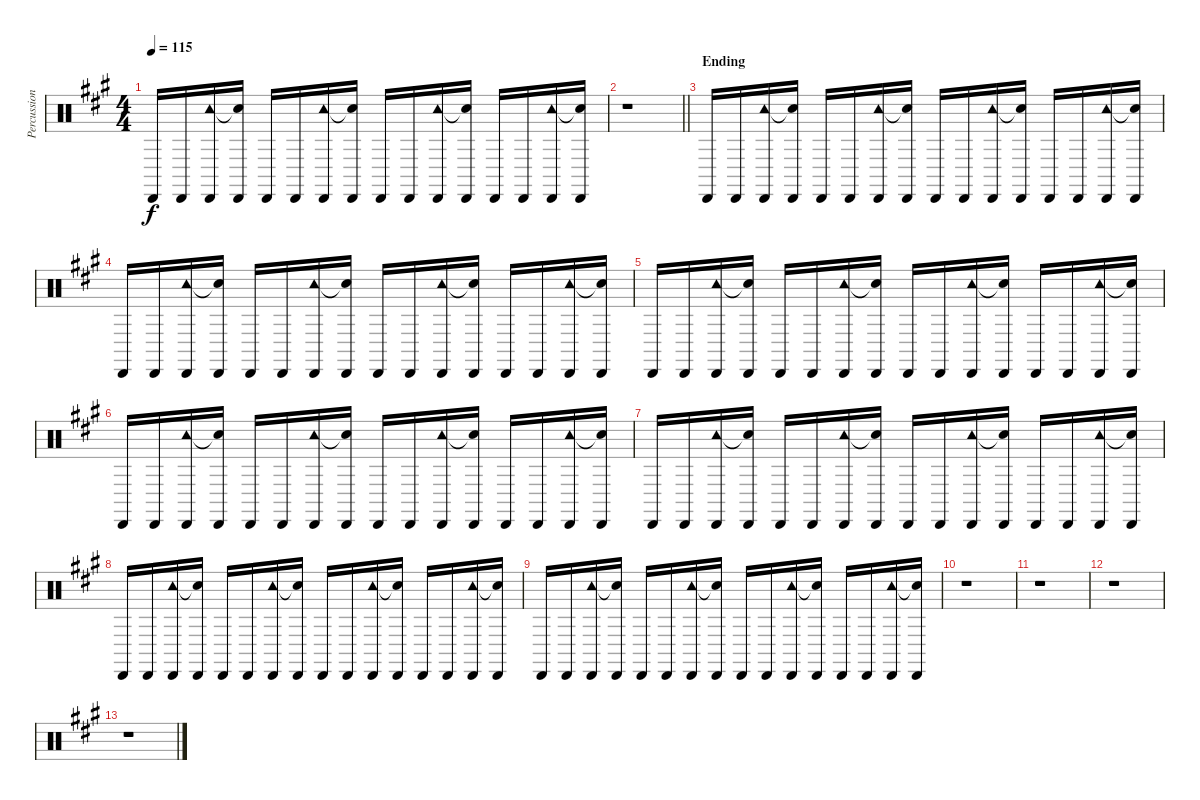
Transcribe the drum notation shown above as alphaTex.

\track ("Percussion" "Percussion") {instrument percussion}
\staff {score}
\articulation defaults
\ts (4 4)
\tempo 115
\clef neutral
\ks a "Cabasa (hit)".16{dy f} "Cabasa (hit)".16
("Cabasa (hit)" "Tambourine (hit)").16 ("Cabasa (hit)" "Snare (hit)"{t}).16 "Cabasa (hit)".16 "Cabasa (hit)".16 ("Cabasa (hit)" "Tambourine (hit)").16 ("Cabasa (hit)" "Snare (hit)"{t}).16 "Cabasa (hit)".16 "Cabasa (hit)".16 ("Cabasa (hit)" "Tambourine (hit)").16 ("Cabasa (hit)" "Snare (hit)"{t}).16 "Cabasa (hit)".16 "Cabasa (hit)".16 ("Cabasa (hit)" "Tambourine (hit)").16 ("Cabasa (hit)" "Snare (hit)"{t}).16 |
\barLineRight lightlight
r.1 |
\section ("" "Ending")
"Cabasa (hit)".16 "Cabasa (hit)".16 ("Cabasa (hit)" "Tambourine (hit)").16 ("Cabasa (hit)" "Snare (hit)"{t}).16 "Cabasa (hit)".16 "Cabasa (hit)".16 ("Cabasa (hit)" "Tambourine (hit)").16 ("Cabasa (hit)" "Snare (hit)"{t}).16 "Cabasa (hit)".16 "Cabasa (hit)".16 ("Cabasa (hit)" "Tambourine (hit)").16 ("Cabasa (hit)" "Snare (hit)"{t}).16 "Cabasa (hit)".16 "Cabasa (hit)".16 ("Cabasa (hit)" "Tambourine (hit)").16 ("Cabasa (hit)" "Snare (hit)"{t}).16 |
"Cabasa (hit)".16 "Cabasa (hit)".16 ("Cabasa (hit)" "Tambourine (hit)").16 ("Cabasa (hit)" "Snare (hit)"{t}).16 "Cabasa (hit)".16 "Cabasa (hit)".16 ("Cabasa (hit)" "Tambourine (hit)").16 ("Cabasa (hit)" "Snare (hit)"{t}).16 "Cabasa (hit)".16 "Cabasa (hit)".16 ("Cabasa (hit)" "Tambourine (hit)").16 ("Cabasa (hit)" "Snare (hit)"{t}).16 "Cabasa (hit)".16 "Cabasa (hit)".16 ("Cabasa (hit)" "Tambourine (hit)").16 ("Cabasa (hit)" "Snare (hit)"{t}).16 |
"Cabasa (hit)".16 "Cabasa (hit)".16 ("Cabasa (hit)" "Tambourine (hit)").16 ("Cabasa (hit)" "Snare (hit)"{t}).16 "Cabasa (hit)".16 "Cabasa (hit)".16 ("Cabasa (hit)" "Tambourine (hit)").16 ("Cabasa (hit)" "Snare (hit)"{t}).16 "Cabasa (hit)".16 "Cabasa (hit)".16 ("Cabasa (hit)" "Tambourine (hit)").16 ("Cabasa (hit)" "Snare (hit)"{t}).16 "Cabasa (hit)".16 "Cabasa (hit)".16 ("Cabasa (hit)" "Tambourine (hit)").16 ("Cabasa (hit)" "Snare (hit)"{t}).16 |
"Cabasa (hit)".16 "Cabasa (hit)".16 ("Cabasa (hit)" "Tambourine (hit)").16 ("Cabasa (hit)" "Snare (hit)"{t}).16 "Cabasa (hit)".16 "Cabasa (hit)".16 ("Cabasa (hit)" "Tambourine (hit)").16 ("Cabasa (hit)" "Snare (hit)"{t}).16 "Cabasa (hit)".16 "Cabasa (hit)".16 ("Cabasa (hit)" "Tambourine (hit)").16 ("Cabasa (hit)" "Snare (hit)"{t}).16 "Cabasa (hit)".16 "Cabasa (hit)".16 ("Cabasa (hit)" "Tambourine (hit)").16 ("Cabasa (hit)" "Snare (hit)"{t}).16 |
"Cabasa (hit)".16 "Cabasa (hit)".16 ("Cabasa (hit)" "Tambourine (hit)").16 ("Cabasa (hit)" "Snare (hit)"{t}).16 "Cabasa (hit)".16 "Cabasa (hit)".16 ("Cabasa (hit)" "Tambourine (hit)").16 ("Cabasa (hit)" "Snare (hit)"{t}).16 "Cabasa (hit)".16 "Cabasa (hit)".16 ("Cabasa (hit)" "Tambourine (hit)").16 ("Cabasa (hit)" "Snare (hit)"{t}).16 "Cabasa (hit)".16 "Cabasa (hit)".16 ("Cabasa (hit)" "Tambourine (hit)").16 ("Cabasa (hit)" "Snare (hit)"{t}).16 |
"Cabasa (hit)".16 "Cabasa (hit)".16 ("Cabasa (hit)" "Tambourine (hit)").16 ("Cabasa (hit)" "Snare (hit)"{t}).16 "Cabasa (hit)".16 "Cabasa (hit)".16 ("Cabasa (hit)" "Tambourine (hit)").16 ("Cabasa (hit)" "Snare (hit)"{t}).16 "Cabasa (hit)".16 "Cabasa (hit)".16 ("Cabasa (hit)" "Tambourine (hit)").16 ("Cabasa (hit)" "Snare (hit)"{t}).16 "Cabasa (hit)".16 "Cabasa (hit)".16 ("Cabasa (hit)" "Tambourine (hit)").16 ("Cabasa (hit)" "Snare (hit)"{t}).16 |
"Cabasa (hit)".16 "Cabasa (hit)".16 ("Cabasa (hit)" "Tambourine (hit)").16 ("Cabasa (hit)" "Snare (hit)"{t}).16 "Cabasa (hit)".16 "Cabasa (hit)".16 ("Cabasa (hit)" "Tambourine (hit)").16 ("Cabasa (hit)" "Snare (hit)"{t}).16 "Cabasa (hit)".16 "Cabasa (hit)".16 ("Cabasa (hit)" "Tambourine (hit)").16 ("Cabasa (hit)" "Snare (hit)"{t}).16 "Cabasa (hit)".16 "Cabasa (hit)".16 ("Cabasa (hit)" "Tambourine (hit)").16 ("Cabasa (hit)" "Snare (hit)"{t}).16 |
r.1 |
r.1 |
r.1 |
r.1
